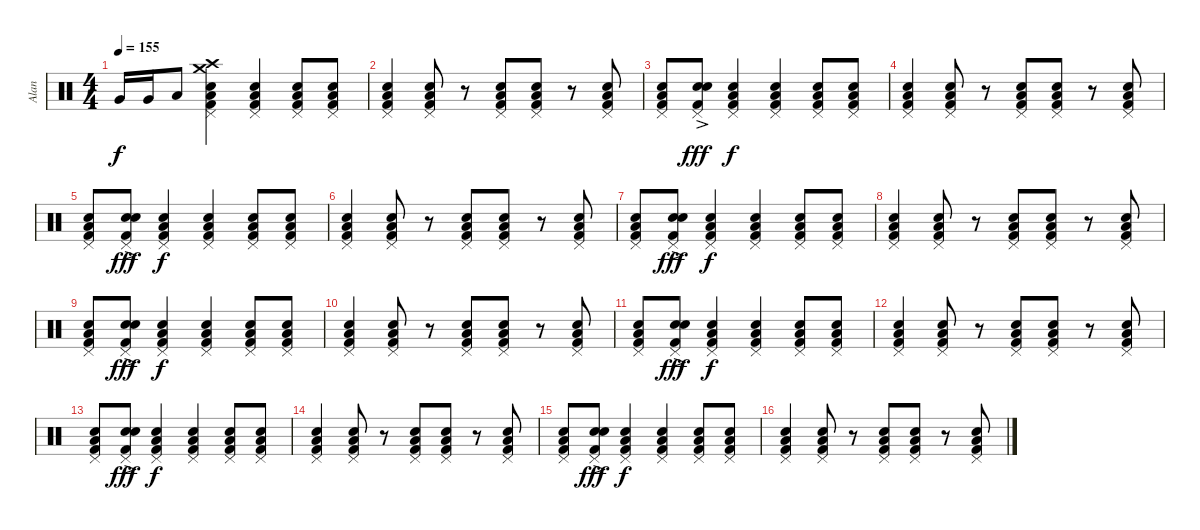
\track ("Alan" "Alan") {instrument percussion}
\staff {score}
\articulation defaults
\ts (4 4)
\tempo 155
\clef neutral
\ks c "Very Low Tom (hit)".16{dy f} "Very Low Tom (hit)".16 "Low Floor Tom (hit)".8
("Kick (hit) 2" "Low Floor Tom (hit)" "Snare (hit) 2" "Pedal Hi-Hat (hit)" "Crash medium (hit)" "Crash high (hit)").4 ("Kick (hit) 2" "Low Floor Tom (hit)" "Snare (hit) 2" "Pedal Hi-Hat (hit)").4 ("Kick (hit) 2" "Low Floor Tom (hit)" "Snare (hit) 2" "Pedal Hi-Hat (hit)").8 ("Kick (hit) 2" "Low Floor Tom (hit)" "Snare (hit) 2" "Pedal Hi-Hat (hit)").8 |
("Kick (hit) 2" "Low Floor Tom (hit)" "Snare (hit) 2" "Pedal Hi-Hat (hit)").4 ("Kick (hit) 2" "Low Floor Tom (hit)" "Snare (hit) 2" "Pedal Hi-Hat (hit)").8 r.8 ("Kick (hit) 2" "Low Floor Tom (hit)" "Snare (hit) 2" "Pedal Hi-Hat (hit)").8 ("Kick (hit) 2" "Low Floor Tom (hit)" "Snare (hit) 2" "Pedal Hi-Hat (hit)").8 r.8 ("Kick (hit) 2" "Low Floor Tom (hit)" "Snare (hit) 2" "Pedal Hi-Hat (hit)").8 |
("Kick (hit) 2" "Low Floor Tom (hit)" "Snare (hit) 2" "Pedal Hi-Hat (hit)").8 ("Kick (hit) 2"{ac} "Snare (hit) 2" "Snare (hit) 2" "Pedal Hi-Hat (hit)").8{dy fff volume 16} ("Kick (hit) 2" "Low Floor Tom (hit)" "Snare (hit) 2" "Pedal Hi-Hat (hit)").4{dy f volume 11} ("Kick (hit) 2" "Low Floor Tom (hit)" "Snare (hit) 2" "Pedal Hi-Hat (hit)").4 ("Kick (hit) 2" "Low Floor Tom (hit)" "Snare (hit) 2" "Pedal Hi-Hat (hit)").8 ("Kick (hit) 2" "Low Floor Tom (hit)" "Snare (hit) 2" "Pedal Hi-Hat (hit)").8 |
("Kick (hit) 2" "Low Floor Tom (hit)" "Snare (hit) 2" "Pedal Hi-Hat (hit)").4 ("Kick (hit) 2" "Low Floor Tom (hit)" "Snare (hit) 2" "Pedal Hi-Hat (hit)").8 r.8 ("Kick (hit) 2" "Low Floor Tom (hit)" "Snare (hit) 2" "Pedal Hi-Hat (hit)").8 ("Kick (hit) 2" "Low Floor Tom (hit)" "Snare (hit) 2" "Pedal Hi-Hat (hit)").8 r.8 ("Kick (hit) 2" "Low Floor Tom (hit)" "Snare (hit) 2" "Pedal Hi-Hat (hit)").8 |
("Kick (hit) 2" "Low Floor Tom (hit)" "Snare (hit) 2" "Pedal Hi-Hat (hit)").8 ("Kick (hit) 2"{ac} "Snare (hit) 2" "Snare (hit) 2" "Pedal Hi-Hat (hit)").8{dy fff volume 16} ("Kick (hit) 2" "Low Floor Tom (hit)" "Snare (hit) 2" "Pedal Hi-Hat (hit)").4{dy f volume 11} ("Kick (hit) 2" "Low Floor Tom (hit)" "Snare (hit) 2" "Pedal Hi-Hat (hit)").4 ("Kick (hit) 2" "Low Floor Tom (hit)" "Snare (hit) 2" "Pedal Hi-Hat (hit)").8 ("Kick (hit) 2" "Low Floor Tom (hit)" "Snare (hit) 2" "Pedal Hi-Hat (hit)").8 |
("Kick (hit) 2" "Low Floor Tom (hit)" "Snare (hit) 2" "Pedal Hi-Hat (hit)").4 ("Kick (hit) 2" "Low Floor Tom (hit)" "Snare (hit) 2" "Pedal Hi-Hat (hit)").8 r.8 ("Kick (hit) 2" "Low Floor Tom (hit)" "Snare (hit) 2" "Pedal Hi-Hat (hit)").8 ("Kick (hit) 2" "Low Floor Tom (hit)" "Snare (hit) 2" "Pedal Hi-Hat (hit)").8 r.8 ("Kick (hit) 2" "Low Floor Tom (hit)" "Snare (hit) 2" "Pedal Hi-Hat (hit)").8 |
("Kick (hit) 2" "Low Floor Tom (hit)" "Snare (hit) 2" "Pedal Hi-Hat (hit)").8 ("Kick (hit) 2"{ac} "Snare (hit) 2" "Snare (hit) 2" "Pedal Hi-Hat (hit)").8{dy fff volume 16} ("Kick (hit) 2" "Low Floor Tom (hit)" "Snare (hit) 2" "Pedal Hi-Hat (hit)").4{dy f volume 11} ("Kick (hit) 2" "Low Floor Tom (hit)" "Snare (hit) 2" "Pedal Hi-Hat (hit)").4 ("Kick (hit) 2" "Low Floor Tom (hit)" "Snare (hit) 2" "Pedal Hi-Hat (hit)").8 ("Kick (hit) 2" "Low Floor Tom (hit)" "Snare (hit) 2" "Pedal Hi-Hat (hit)").8 |
("Kick (hit) 2" "Low Floor Tom (hit)" "Snare (hit) 2" "Pedal Hi-Hat (hit)").4 ("Kick (hit) 2" "Low Floor Tom (hit)" "Snare (hit) 2" "Pedal Hi-Hat (hit)").8 r.8 ("Kick (hit) 2" "Low Floor Tom (hit)" "Snare (hit) 2" "Pedal Hi-Hat (hit)").8 ("Kick (hit) 2" "Low Floor Tom (hit)" "Snare (hit) 2" "Pedal Hi-Hat (hit)").8 r.8 ("Kick (hit) 2" "Low Floor Tom (hit)" "Snare (hit) 2" "Pedal Hi-Hat (hit)").8 |
("Kick (hit) 2" "Low Floor Tom (hit)" "Snare (hit) 2" "Pedal Hi-Hat (hit)").8 ("Kick (hit) 2"{ac} "Snare (hit) 2" "Snare (hit) 2" "Pedal Hi-Hat (hit)").8{dy fff volume 16} ("Kick (hit) 2" "Low Floor Tom (hit)" "Snare (hit) 2" "Pedal Hi-Hat (hit)").4{dy f volume 11} ("Kick (hit) 2" "Low Floor Tom (hit)" "Snare (hit) 2" "Pedal Hi-Hat (hit)").4 ("Kick (hit) 2" "Low Floor Tom (hit)" "Snare (hit) 2" "Pedal Hi-Hat (hit)").8 ("Kick (hit) 2" "Low Floor Tom (hit)" "Snare (hit) 2" "Pedal Hi-Hat (hit)").8 |
("Kick (hit) 2" "Low Floor Tom (hit)" "Snare (hit) 2" "Pedal Hi-Hat (hit)").4 ("Kick (hit) 2" "Low Floor Tom (hit)" "Snare (hit) 2" "Pedal Hi-Hat (hit)").8 r.8 ("Kick (hit) 2" "Low Floor Tom (hit)" "Snare (hit) 2" "Pedal Hi-Hat (hit)").8 ("Kick (hit) 2" "Low Floor Tom (hit)" "Snare (hit) 2" "Pedal Hi-Hat (hit)").8 r.8 ("Kick (hit) 2" "Low Floor Tom (hit)" "Snare (hit) 2" "Pedal Hi-Hat (hit)").8 |
("Kick (hit) 2" "Low Floor Tom (hit)" "Snare (hit) 2" "Pedal Hi-Hat (hit)").8 ("Kick (hit) 2"{ac} "Snare (hit) 2" "Snare (hit) 2" "Pedal Hi-Hat (hit)").8{dy fff volume 16} ("Kick (hit) 2" "Low Floor Tom (hit)" "Snare (hit) 2" "Pedal Hi-Hat (hit)").4{dy f volume 11} ("Kick (hit) 2" "Low Floor Tom (hit)" "Snare (hit) 2" "Pedal Hi-Hat (hit)").4 ("Kick (hit) 2" "Low Floor Tom (hit)" "Snare (hit) 2" "Pedal Hi-Hat (hit)").8 ("Kick (hit) 2" "Low Floor Tom (hit)" "Snare (hit) 2" "Pedal Hi-Hat (hit)").8 |
("Kick (hit) 2" "Low Floor Tom (hit)" "Snare (hit) 2" "Pedal Hi-Hat (hit)").4 ("Kick (hit) 2" "Low Floor Tom (hit)" "Snare (hit) 2" "Pedal Hi-Hat (hit)").8 r.8 ("Kick (hit) 2" "Low Floor Tom (hit)" "Snare (hit) 2" "Pedal Hi-Hat (hit)").8 ("Kick (hit) 2" "Low Floor Tom (hit)" "Snare (hit) 2" "Pedal Hi-Hat (hit)").8 r.8 ("Kick (hit) 2" "Low Floor Tom (hit)" "Snare (hit) 2" "Pedal Hi-Hat (hit)").8 |
("Kick (hit) 2" "Low Floor Tom (hit)" "Snare (hit) 2" "Pedal Hi-Hat (hit)").8 ("Kick (hit) 2"{ac} "Snare (hit) 2" "Snare (hit) 2" "Pedal Hi-Hat (hit)").8{dy fff volume 16} ("Kick (hit) 2" "Low Floor Tom (hit)" "Snare (hit) 2" "Pedal Hi-Hat (hit)").4{dy f volume 11} ("Kick (hit) 2" "Low Floor Tom (hit)" "Snare (hit) 2" "Pedal Hi-Hat (hit)").4 ("Kick (hit) 2" "Low Floor Tom (hit)" "Snare (hit) 2" "Pedal Hi-Hat (hit)").8 ("Kick (hit) 2" "Low Floor Tom (hit)" "Snare (hit) 2" "Pedal Hi-Hat (hit)").8 |
("Kick (hit) 2" "Low Floor Tom (hit)" "Snare (hit) 2" "Pedal Hi-Hat (hit)").4 ("Kick (hit) 2" "Low Floor Tom (hit)" "Snare (hit) 2" "Pedal Hi-Hat (hit)").8 r.8 ("Kick (hit) 2" "Low Floor Tom (hit)" "Snare (hit) 2" "Pedal Hi-Hat (hit)").8 ("Kick (hit) 2" "Low Floor Tom (hit)" "Snare (hit) 2" "Pedal Hi-Hat (hit)").8 r.8 ("Kick (hit) 2" "Low Floor Tom (hit)" "Snare (hit) 2" "Pedal Hi-Hat (hit)").8 |
("Kick (hit) 2" "Low Floor Tom (hit)" "Snare (hit) 2" "Pedal Hi-Hat (hit)").8 ("Kick (hit) 2"{ac} "Snare (hit) 2" "Snare (hit) 2" "Pedal Hi-Hat (hit)").8{dy fff volume 16} ("Kick (hit) 2" "Low Floor Tom (hit)" "Snare (hit) 2" "Pedal Hi-Hat (hit)").4{dy f volume 11} ("Kick (hit) 2" "Low Floor Tom (hit)" "Snare (hit) 2" "Pedal Hi-Hat (hit)").4 ("Kick (hit) 2" "Low Floor Tom (hit)" "Snare (hit) 2" "Pedal Hi-Hat (hit)").8 ("Kick (hit) 2" "Low Floor Tom (hit)" "Snare (hit) 2" "Pedal Hi-Hat (hit)").8 |
("Kick (hit) 2" "Low Floor Tom (hit)" "Snare (hit) 2" "Pedal Hi-Hat (hit)").4 ("Kick (hit) 2" "Low Floor Tom (hit)" "Snare (hit) 2" "Pedal Hi-Hat (hit)").8 r.8 ("Kick (hit) 2" "Low Floor Tom (hit)" "Snare (hit) 2" "Pedal Hi-Hat (hit)").8 ("Kick (hit) 2" "Low Floor Tom (hit)" "Snare (hit) 2" "Pedal Hi-Hat (hit)").8 r.8 ("Kick (hit) 2" "Low Floor Tom (hit)" "Snare (hit) 2" "Pedal Hi-Hat (hit)").8
